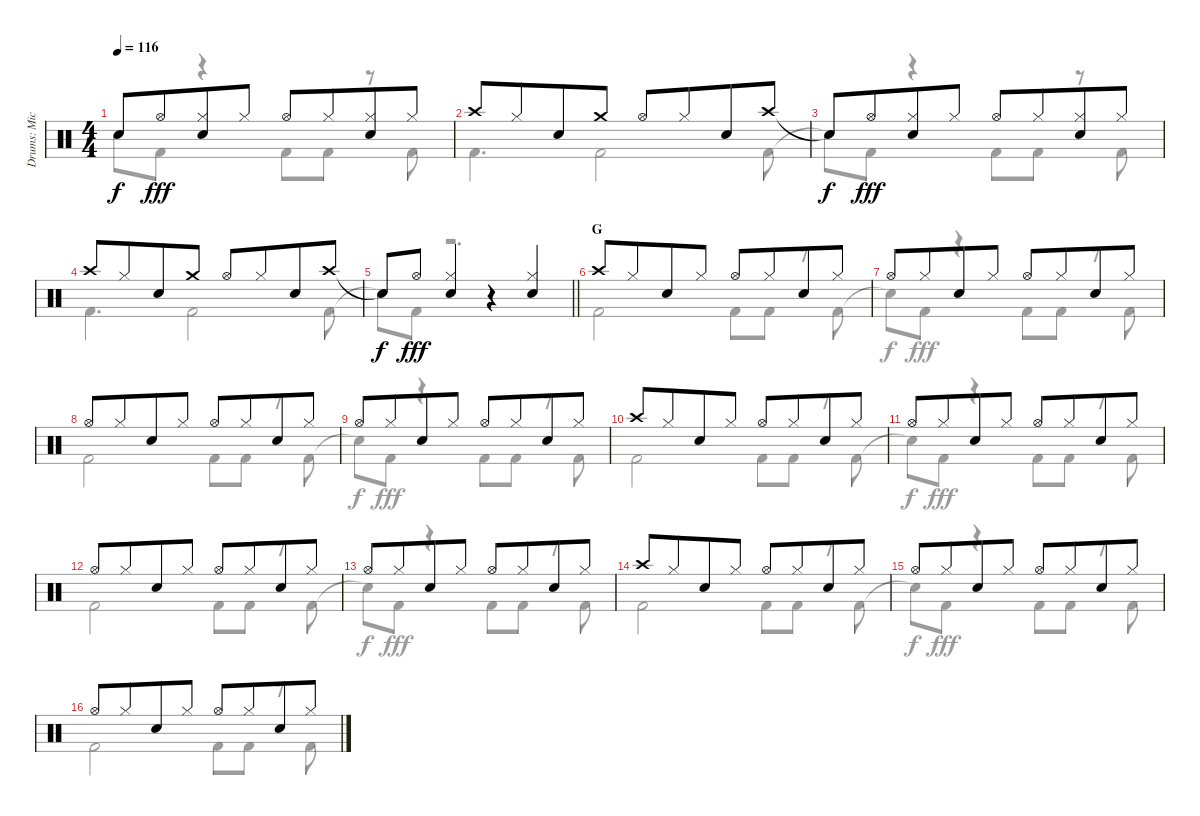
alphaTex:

\track ("Drums: Mick" "Drums: Mic") {instrument percussion}
\staff {score}
\articulation defaults
\voice
\ts (4 4)
\tempo 116
\clef neutral
\ks c "Snare (hit)"{t}.8{dy f} "Hi-Hat (open)".8{dy fff beam merge}
("Hi-Hat (closed)" "Snare (hit) 2").8 "Hi-Hat (closed)".8 "Hi-Hat (open)".8 "Hi-Hat (closed)".8{beam merge} ("Hi-Hat (closed)" "Snare (hit) 2").8 "Hi-Hat (closed)".8 |
"Crash high (hit)".8 "Hi-Hat (closed)".8{beam merge} "Snare (hit) 2".8 "Crash medium (hit)".8 "Hi-Hat (open)".8 "Hi-Hat (closed)".8{beam merge} "Snare (hit) 2".8 "Crash high (hit)".8 |
"Snare (hit)"{t}.8{dy f} "Hi-Hat (open)".8{dy fff beam merge} ("Hi-Hat (closed)" "Snare (hit) 2").8 "Hi-Hat (closed)".8 "Hi-Hat (open)".8 "Hi-Hat (closed)".8{beam merge} ("Hi-Hat (closed)" "Snare (hit) 2").8 "Hi-Hat (closed)".8 |
"Crash high (hit)".8 "Hi-Hat (closed)".8{beam merge} "Snare (hit) 2".8 "Crash medium (hit)".8 "Hi-Hat (open)".8 "Hi-Hat (closed)".8{beam merge} "Snare (hit) 2".8 "Crash high (hit)".8 |
\barLineRight lightlight "Snare (hit)"{t}.8{dy f} "Hi-Hat (open)".8{dy fff beam merge}
("Hi-Hat (closed)" "Snare (hit) 2").4 r.4{beam merge} ("Hi-Hat (closed)" "Snare (hit) 2").4 |
\section ("" "G")
"Crash high (hit)".8 "Hi-Hat (closed)".8{beam merge} "Snare (hit) 2".8 "Hi-Hat (closed)".8 "Hi-Hat (open)".8 "Hi-Hat (closed)".8{beam merge} "Snare (hit) 2".8 "Hi-Hat (closed)".8 |
"Hi-Hat (open)".8 "Hi-Hat (closed)".8{beam merge} "Snare (hit) 2".8 "Hi-Hat (closed)".8 "Hi-Hat (open)".8 "Hi-Hat (closed)".8{beam merge} "Snare (hit) 2".8 "Hi-Hat (closed)".8 |
"Hi-Hat (open)".8 "Hi-Hat (closed)".8{beam merge} "Snare (hit) 2".8 "Hi-Hat (closed)".8 "Hi-Hat (open)".8 "Hi-Hat (closed)".8{beam merge} "Snare (hit) 2".8 "Hi-Hat (closed)".8 |
"Hi-Hat (open)".8 "Hi-Hat (closed)".8{beam merge} "Snare (hit) 2".8 "Hi-Hat (closed)".8 "Hi-Hat (open)".8 "Hi-Hat (closed)".8{beam merge} "Snare (hit) 2".8 "Hi-Hat (closed)".8 |
"Crash high (hit)".8 "Hi-Hat (closed)".8{beam merge} "Snare (hit) 2".8 "Hi-Hat (closed)".8 "Hi-Hat (open)".8 "Hi-Hat (closed)".8{beam merge} "Snare (hit) 2".8 "Hi-Hat (closed)".8 |
"Hi-Hat (open)".8 "Hi-Hat (closed)".8{beam merge} "Snare (hit) 2".8 "Hi-Hat (closed)".8 "Hi-Hat (open)".8 "Hi-Hat (closed)".8{beam merge} "Snare (hit) 2".8 "Hi-Hat (closed)".8 |
"Hi-Hat (open)".8 "Hi-Hat (closed)".8{beam merge} "Snare (hit) 2".8 "Hi-Hat (closed)".8 "Hi-Hat (open)".8 "Hi-Hat (closed)".8{beam merge} "Snare (hit) 2".8 "Hi-Hat (closed)".8 |
"Hi-Hat (open)".8 "Hi-Hat (closed)".8{beam merge} "Snare (hit) 2".8 "Hi-Hat (closed)".8 "Hi-Hat (open)".8 "Hi-Hat (closed)".8{beam merge} "Snare (hit) 2".8 "Hi-Hat (closed)".8 |
"Crash high (hit)".8 "Hi-Hat (closed)".8{beam merge} "Snare (hit) 2".8 "Hi-Hat (closed)".8 "Hi-Hat (open)".8 "Hi-Hat (closed)".8{beam merge} "Snare (hit) 2".8 "Hi-Hat (closed)".8 |
"Hi-Hat (open)".8 "Hi-Hat (closed)".8{beam merge} "Snare (hit) 2".8 "Hi-Hat (closed)".8 "Hi-Hat (open)".8 "Hi-Hat (closed)".8{beam merge} "Snare (hit) 2".8 "Hi-Hat (closed)".8 |
"Hi-Hat (open)".8 "Hi-Hat (closed)".8{beam merge} "Snare (hit) 2".8 "Hi-Hat (closed)".8 "Hi-Hat (open)".8 "Hi-Hat (closed)".8{beam merge} "Snare (hit) 2".8 "Hi-Hat (closed)".8
\voice
\clef neutral
\ottava regular
\simile none
\ks c "Snare (hit)"{t}.8{dy f} "Kick (hit) 2".8{dy fff}
r.4 "Kick (hit) 2".8 "Kick (hit) 2".8 r.8 "Kick (hit) 2".8 |
"Kick (hit) 2".4{d} "Kick (hit) 2".2 "Kick (hit) 2".8 |
"Snare (hit)"{t}.8{dy f} "Kick (hit) 2".8{dy fff} r.4 "Kick (hit) 2".8 "Kick (hit) 2".8 r.8 "Kick (hit) 2".8 |
"Kick (hit) 2".4{d} "Kick (hit) 2".2 "Kick (hit) 2".8 |
\barLineRight lightlight "Snare (hit)"{t}.8{dy f} "Kick (hit) 2".8{dy fff}
r.2{d} |
"Kick (hit) 2".2 "Kick (hit) 2".8 "Kick (hit) 2".8 r.8 "Kick (hit) 2".8 |
"Snare (hit)"{t}.8{dy f} "Kick (hit) 2".8{dy fff} r.4 "Kick (hit) 2".8 "Kick (hit) 2".8 r.8 "Kick (hit) 2".8 |
"Kick (hit) 2".2 "Kick (hit) 2".8 "Kick (hit) 2".8 r.8 "Kick (hit) 2".8 |
"Snare (hit)"{t}.8{dy f} "Kick (hit) 2".8{dy fff} r.4 "Kick (hit) 2".8 "Kick (hit) 2".8 r.8 "Kick (hit) 2".8 |
"Kick (hit) 2".2 "Kick (hit) 2".8 "Kick (hit) 2".8 r.8 "Kick (hit) 2".8 |
"Snare (hit)"{t}.8{dy f} "Kick (hit) 2".8{dy fff} r.4 "Kick (hit) 2".8 "Kick (hit) 2".8 r.8 "Kick (hit) 2".8 |
"Kick (hit) 2".2 "Kick (hit) 2".8 "Kick (hit) 2".8 r.8 "Kick (hit) 2".8 |
"Snare (hit)"{t}.8{dy f} "Kick (hit) 2".8{dy fff} r.4 "Kick (hit) 2".8 "Kick (hit) 2".8 r.8 "Kick (hit) 2".8 |
"Kick (hit) 2".2 "Kick (hit) 2".8 "Kick (hit) 2".8 r.8 "Kick (hit) 2".8 |
"Snare (hit)"{t}.8{dy f} "Kick (hit) 2".8{dy fff} r.4 "Kick (hit) 2".8 "Kick (hit) 2".8 r.8 "Kick (hit) 2".8 |
"Kick (hit) 2".2 "Kick (hit) 2".8 "Kick (hit) 2".8 r.8 "Kick (hit) 2".8
